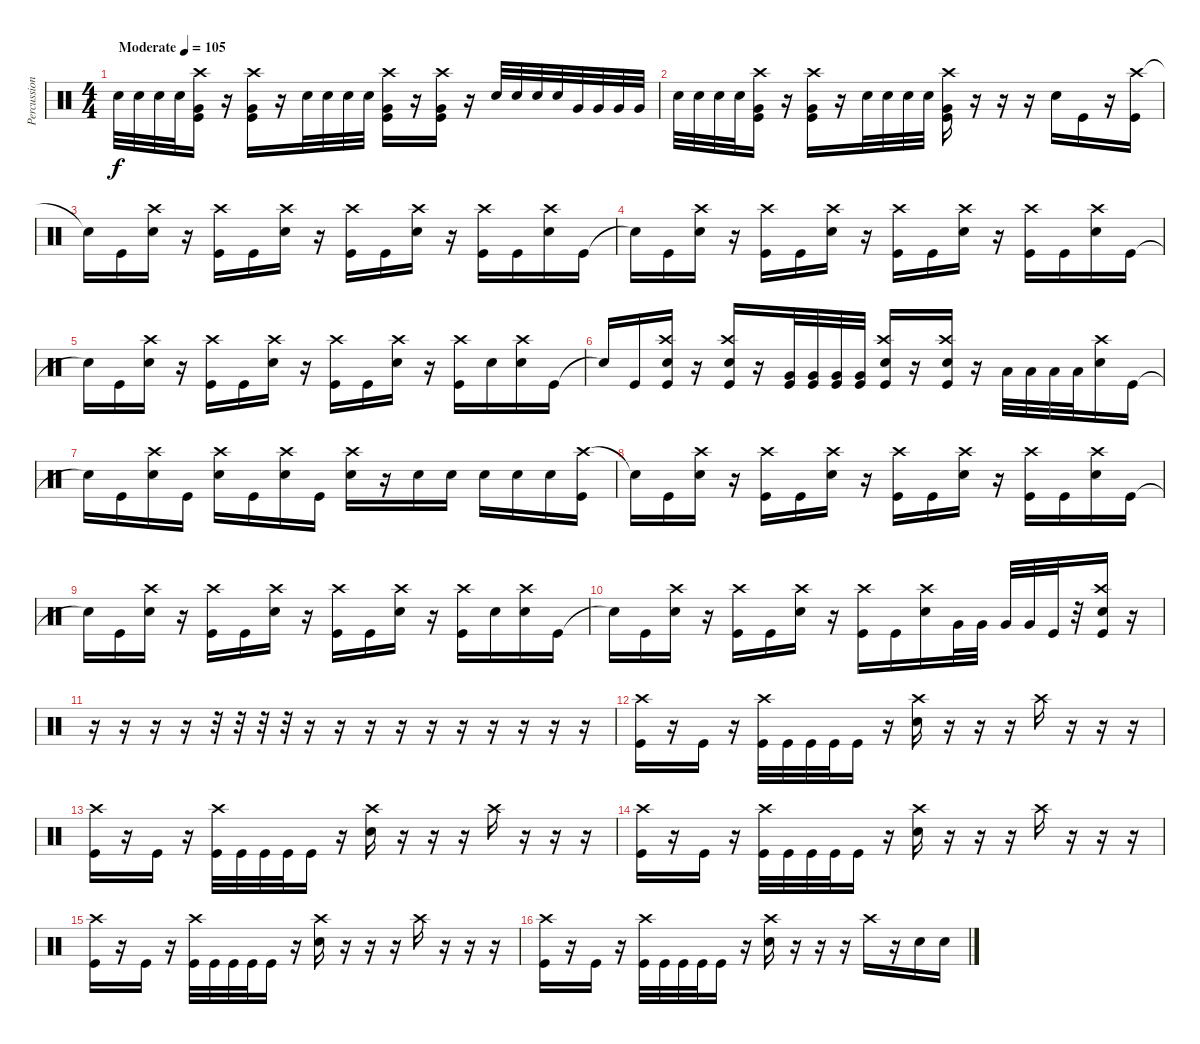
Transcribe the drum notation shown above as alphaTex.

\track ("Percussion" "Percussion") {instrument percussion}
\staff {score}
\articulation defaults
\ts (4 4)
\tempo (105 "Moderate")
\clef neutral
\ks c "Snare (hit) 2".32{dy f} "Snare (hit) 2".32 "Snare (hit) 2".32 "Snare (hit) 2".32
("Crash high (hit)" "Very Low Tom (hit)" "Kick (hit)").16 r.16 ("Crash high (hit)" "Very Low Tom (hit)" "Kick (hit)").16 r.16 "Snare (hit) 2".32 "Snare (hit) 2".32 "Snare (hit) 2".32 "Snare (hit) 2".32 ("Crash high (hit)" "Very Low Tom (hit)" "Kick (hit)").16 r.16 ("Crash high (hit)" "Very Low Tom (hit)" "Kick (hit)").16 r.16 "Snare (hit) 2".32 "Snare (hit) 2".32 "Snare (hit) 2".32 "Snare (hit) 2".32 "Very Low Tom (hit)".32 "Very Low Tom (hit)".32 "Very Low Tom (hit)".32 "Very Low Tom (hit)".32 |
"Snare (hit) 2".32 "Snare (hit) 2".32 "Snare (hit) 2".32 "Snare (hit) 2".32 ("Crash high (hit)" "Very Low Tom (hit)" "Kick (hit)").16 r.16 ("Crash high (hit)" "Very Low Tom (hit)" "Kick (hit)").16 r.16 "Snare (hit) 2".32 "Snare (hit) 2".32 "Snare (hit) 2".32 "Snare (hit) 2".32 ("Crash high (hit)" "Very Low Tom (hit)" "Kick (hit)").16 r.16 r.16 r.16 "Snare (hit) 2".16 "Kick (hit)".16 r.16 ("Crash high (hit)" "Kick (hit)").16 |
"Snare (hit)"{t}.16 "Kick (hit)".16 ("Crash high (hit)" "Snare (hit) 2").16 r.16 ("Crash high (hit)" "Kick (hit)").16 "Kick (hit)".16 ("Crash high (hit)" "Snare (hit) 2").16 r.16 ("Crash high (hit)" "Kick (hit)").16 "Kick (hit)".16 ("Crash high (hit)" "Snare (hit) 2").16 r.16 ("Crash high (hit)" "Kick (hit)").16 "Kick (hit)".16 ("Crash high (hit)" "Snare (hit) 2").16 "Kick (hit)".16 |
"Snare (hit)"{t}.16 "Kick (hit)".16 ("Crash high (hit)" "Snare (hit) 2").16 r.16 ("Crash high (hit)" "Kick (hit)").16 "Kick (hit)".16 ("Crash high (hit)" "Snare (hit) 2").16 r.16 ("Crash high (hit)" "Kick (hit)").16 "Kick (hit)".16 ("Crash high (hit)" "Snare (hit) 2").16 r.16 ("Crash high (hit)" "Kick (hit)").16 "Kick (hit)".16 ("Crash high (hit)" "Snare (hit) 2").16 "Kick (hit)".16 |
"Snare (hit)"{t}.16 "Kick (hit)".16 ("Crash high (hit)" "Snare (hit) 2").16 r.16 ("Crash high (hit)" "Kick (hit)").16 "Kick (hit)".16 ("Crash high (hit)" "Snare (hit) 2").16 r.16 ("Crash high (hit)" "Kick (hit)").16 "Kick (hit)".16 ("Crash high (hit)" "Snare (hit) 2").16 r.16 ("Crash high (hit)" "Kick (hit)").16 "Snare (hit) 2".16 ("Crash high (hit)" "Snare (hit) 2").16 "Kick (hit)".16 |
"Snare (hit)"{t}.16 "Kick (hit)".16 ("Crash high (hit)" "Snare (hit) 2" "Kick (hit)").16 r.16 ("Crash high (hit)" "Snare (hit) 2" "Kick (hit)").16 r.16 ("Very Low Tom (hit)" "Kick (hit)").32 ("Very Low Tom (hit)" "Kick (hit)").32 ("Very Low Tom (hit)" "Kick (hit)").32 ("Very Low Tom (hit)" "Kick (hit)").32 ("Crash high (hit)" "Snare (hit) 2" "Kick (hit)").16 r.16 ("Crash high (hit)" "Snare (hit) 2" "Kick (hit)").16 r.16 "Low Floor Tom (hit)".32 "Low Floor Tom (hit)".32 "Low Floor Tom (hit)".32 "Low Floor Tom (hit)".32 ("Crash high (hit)" "Snare (hit) 2").16 "Kick (hit)".16 |
"Snare (hit)"{t}.16 "Kick (hit)".16 ("Crash high (hit)" "Snare (hit) 2").16 "Kick (hit)".16 ("Crash high (hit)" "Snare (hit) 2").16 "Kick (hit)".16 ("Crash high (hit)" "Snare (hit) 2").16 "Kick (hit)".16 ("Crash high (hit)" "Snare (hit) 2").16 r.16 "Snare (hit) 2".16 "Snare (hit) 2".16 "Snare (hit) 2".16 "Snare (hit) 2".16 "Snare (hit) 2".16 ("Crash high (hit)" "Kick (hit)").16 |
"Snare (hit)"{t}.16 "Kick (hit)".16 ("Crash high (hit)" "Snare (hit) 2").16 r.16 ("Crash high (hit)" "Kick (hit)").16 "Kick (hit)".16 ("Crash high (hit)" "Snare (hit) 2").16 r.16 ("Crash high (hit)" "Kick (hit)").16 "Kick (hit)".16 ("Crash high (hit)" "Snare (hit) 2").16 r.16 ("Crash high (hit)" "Kick (hit)").16 "Kick (hit)".16 ("Crash high (hit)" "Snare (hit) 2").16 "Kick (hit)".16 |
"Snare (hit)"{t}.16 "Kick (hit)".16 ("Crash high (hit)" "Snare (hit) 2").16 r.16 ("Crash high (hit)" "Kick (hit)").16 "Kick (hit)".16 ("Crash high (hit)" "Snare (hit) 2").16 r.16 ("Crash high (hit)" "Kick (hit)").16 "Kick (hit)".16 ("Crash high (hit)" "Snare (hit) 2").16 r.16 ("Crash high (hit)" "Kick (hit)").16 "Snare (hit) 2".16 ("Crash high (hit)" "Snare (hit) 2").16 "Kick (hit)".16 |
"Snare (hit)"{t}.16 "Kick (hit)".16 ("Crash high (hit)" "Snare (hit) 2").16 r.16 ("Crash high (hit)" "Kick (hit)").16 "Kick (hit)".16 ("Crash high (hit)" "Snare (hit) 2").16 r.16 ("Crash high (hit)" "Kick (hit)").16 "Kick (hit)".16 ("Crash high (hit)" "Snare (hit) 2").16 "Very Low Tom (hit)".32 "Very Low Tom (hit)".32 "Very Low Tom (hit)".32 "Very Low Tom (hit)".32 "Kick (hit)".32 r.32 ("Crash high (hit)" "Snare (hit) 2" "Kick (hit)").16 r.16 |
r.16 r.16 r.16 r.16 r.32 r.32 r.32 r.32 r.16 r.16 r.16 r.16 r.16 r.16 r.16 r.16 r.16 r.16 |
("Crash high (hit)" "Kick (hit)").16 r.16 "Kick (hit)".16 r.16 ("Crash high (hit)" "Kick (hit)").32 "Kick (hit)".32 "Kick (hit)".32 "Kick (hit)".32 "Kick (hit)".16 r.16 ("Crash high (hit)" "Snare (hit) 2").16 r.16 r.16 r.16 "Crash high (hit)".16 r.16 r.16 r.16 |
("Crash high (hit)" "Kick (hit)").16 r.16 "Kick (hit)".16 r.16 ("Crash high (hit)" "Kick (hit)").32 "Kick (hit)".32 "Kick (hit)".32 "Kick (hit)".32 "Kick (hit)".16 r.16 ("Crash high (hit)" "Snare (hit) 2").16 r.16 r.16 r.16 "Crash high (hit)".16 r.16 r.16 r.16 |
("Crash high (hit)" "Kick (hit)").16 r.16 "Kick (hit)".16 r.16 ("Crash high (hit)" "Kick (hit)").32 "Kick (hit)".32 "Kick (hit)".32 "Kick (hit)".32 "Kick (hit)".16 r.16 ("Crash high (hit)" "Snare (hit) 2").16 r.16 r.16 r.16 "Crash high (hit)".16 r.16 r.16 r.16 |
("Crash high (hit)" "Kick (hit)").16 r.16 "Kick (hit)".16 r.16 ("Crash high (hit)" "Kick (hit)").32 "Kick (hit)".32 "Kick (hit)".32 "Kick (hit)".32 "Kick (hit)".16 r.16 ("Crash high (hit)" "Snare (hit) 2").16 r.16 r.16 r.16 "Crash high (hit)".16 r.16 r.16 r.16 |
("Crash high (hit)" "Kick (hit)").16 r.16 "Kick (hit)".16 r.16 ("Crash high (hit)" "Kick (hit)").32 "Kick (hit)".32 "Kick (hit)".32 "Kick (hit)".32 "Kick (hit)".16 r.16 ("Crash high (hit)" "Snare (hit) 2").16 r.16 r.16 r.16 "Crash high (hit)".16 r.16 "Snare (hit) 2".16 "Snare (hit) 2".16
